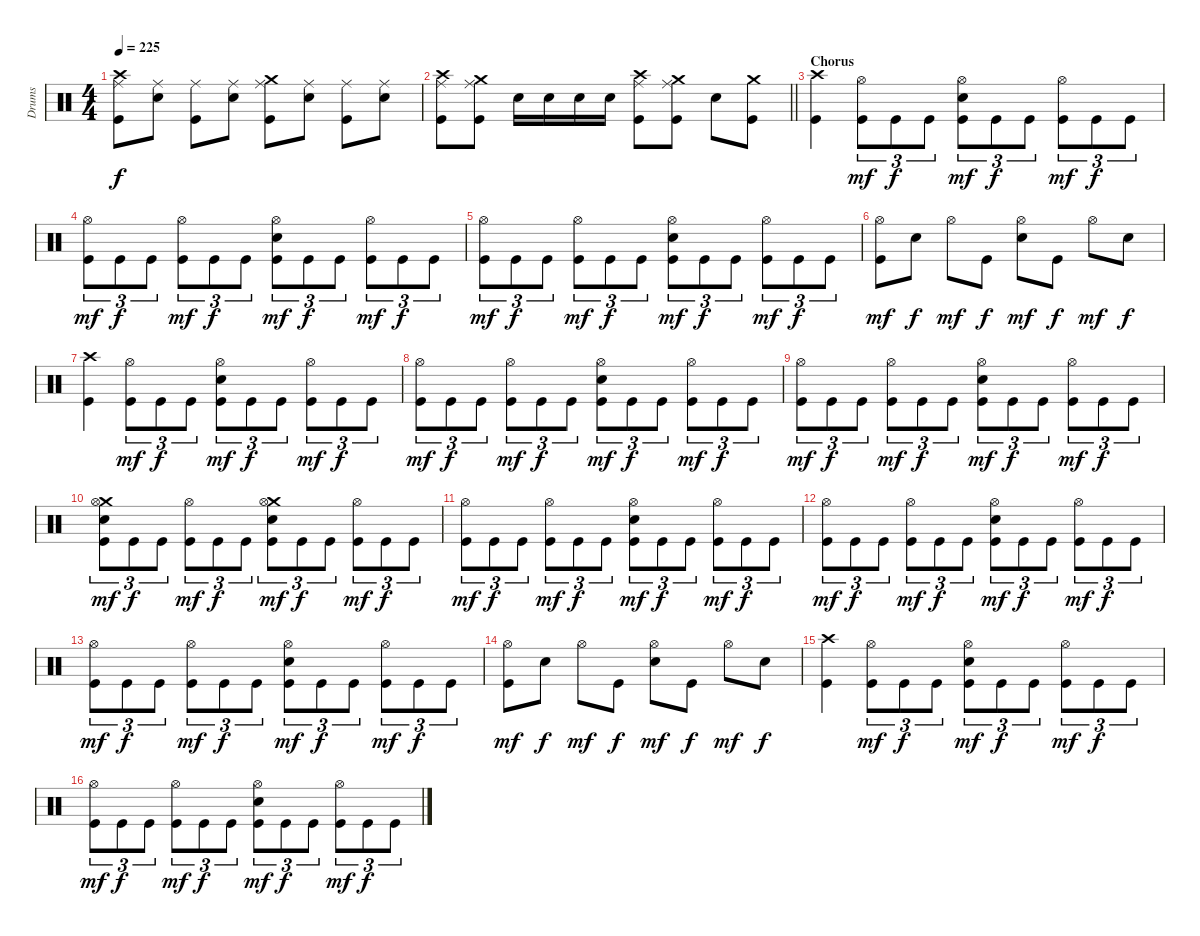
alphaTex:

\track ("Drums" "Drums") {instrument percussion}
\staff {score}
\articulation defaults
\ts (4 4)
\tempo 225
\clef neutral
\ks c
("Crash high (hit)" "Ride (middle)" "Kick (hit)").8{dy f} ("Ride (middle)" "Electric Snare (hit)").8 ("Ride (middle)" "Kick (hit)").8 ("Ride (middle)" "Electric Snare (hit)").8 ("Crash medium (hit)" "Ride (middle)" "Kick (hit)").8 ("Ride (middle)" "Electric Snare (hit)").8 ("Ride (middle)" "Kick (hit)").8 ("Ride (middle)" "Electric Snare (hit)").8 |
\barLineRight lightlight
("Crash high (hit)" "Ride (middle)" "Kick (hit)").8 ("Crash medium (hit)" "Ride (middle)" "Kick (hit)").8 "Electric Snare (hit)".16 "Electric Snare (hit)".16 "Electric Snare (hit)".16 "Electric Snare (hit)".16 ("Crash high (hit)" "Ride (middle)" "Kick (hit)").8 ("Crash medium (hit)" "Ride (middle)" "Kick (hit)").8 "Electric Snare (hit)".8 ("Crash medium (hit)" "Kick (hit)").8 |
\section ("" "Chorus")
("Crash high (hit)" "Kick (hit)").4 ("Hi-Hat (open)" "Kick (hit)").8{tu (3 2) dy mf} "Kick (hit)".8{tu (3 2) dy f} "Kick (hit)".8{tu (3 2)} ("Hi-Hat (open)" "Electric Snare (hit)" "Kick (hit)").8{tu (3 2) dy mf} "Kick (hit)".8{tu (3 2) dy f} "Kick (hit)".8{tu (3 2)} ("Hi-Hat (open)" "Kick (hit)").8{tu (3 2) dy mf} "Kick (hit)".8{tu (3 2) dy f} "Kick (hit)".8{tu (3 2)} |
("Hi-Hat (open)" "Kick (hit)").8{tu (3 2) dy mf} "Kick (hit)".8{tu (3 2) dy f} "Kick (hit)".8{tu (3 2)} ("Hi-Hat (open)" "Kick (hit)").8{tu (3 2) dy mf} "Kick (hit)".8{tu (3 2) dy f} "Kick (hit)".8{tu (3 2)} ("Hi-Hat (open)" "Electric Snare (hit)" "Kick (hit)").8{tu (3 2) dy mf} "Kick (hit)".8{tu (3 2) dy f} "Kick (hit)".8{tu (3 2)} ("Hi-Hat (open)" "Kick (hit)").8{tu (3 2) dy mf} "Kick (hit)".8{tu (3 2) dy f} "Kick (hit)".8{tu (3 2)} |
("Hi-Hat (open)" "Kick (hit)").8{tu (3 2) dy mf} "Kick (hit)".8{tu (3 2) dy f} "Kick (hit)".8{tu (3 2)} ("Hi-Hat (open)" "Kick (hit)").8{tu (3 2) dy mf} "Kick (hit)".8{tu (3 2) dy f} "Kick (hit)".8{tu (3 2)} ("Hi-Hat (open)" "Electric Snare (hit)" "Kick (hit)").8{tu (3 2) dy mf} "Kick (hit)".8{tu (3 2) dy f} "Kick (hit)".8{tu (3 2)} ("Hi-Hat (open)" "Kick (hit)").8{tu (3 2) dy mf} "Kick (hit)".8{tu (3 2) dy f} "Kick (hit)".8{tu (3 2)} |
("Hi-Hat (open)" "Kick (hit)").8{dy mf} "Electric Snare (hit)".8{dy f} "Hi-Hat (open)".8{dy mf} "Kick (hit)".8{dy f} ("Hi-Hat (open)" "Electric Snare (hit)").8{dy mf} "Kick (hit)".8{dy f} "Hi-Hat (open)".8{dy mf} "Electric Snare (hit)".8{dy f} |
("Crash high (hit)" "Kick (hit)").4 ("Hi-Hat (open)" "Kick (hit)").8{tu (3 2) dy mf} "Kick (hit)".8{tu (3 2) dy f} "Kick (hit)".8{tu (3 2)} ("Hi-Hat (open)" "Electric Snare (hit)" "Kick (hit)").8{tu (3 2) dy mf} "Kick (hit)".8{tu (3 2) dy f} "Kick (hit)".8{tu (3 2)} ("Hi-Hat (open)" "Kick (hit)").8{tu (3 2) dy mf} "Kick (hit)".8{tu (3 2) dy f} "Kick (hit)".8{tu (3 2)} |
("Hi-Hat (open)" "Kick (hit)").8{tu (3 2) dy mf} "Kick (hit)".8{tu (3 2) dy f} "Kick (hit)".8{tu (3 2)} ("Hi-Hat (open)" "Kick (hit)").8{tu (3 2) dy mf} "Kick (hit)".8{tu (3 2) dy f} "Kick (hit)".8{tu (3 2)} ("Hi-Hat (open)" "Electric Snare (hit)" "Kick (hit)").8{tu (3 2) dy mf} "Kick (hit)".8{tu (3 2) dy f} "Kick (hit)".8{tu (3 2)} ("Hi-Hat (open)" "Kick (hit)").8{tu (3 2) dy mf} "Kick (hit)".8{tu (3 2) dy f} "Kick (hit)".8{tu (3 2)} |
("Hi-Hat (open)" "Kick (hit)").8{tu (3 2) dy mf} "Kick (hit)".8{tu (3 2) dy f} "Kick (hit)".8{tu (3 2)} ("Hi-Hat (open)" "Kick (hit)").8{tu (3 2) dy mf} "Kick (hit)".8{tu (3 2) dy f} "Kick (hit)".8{tu (3 2)} ("Hi-Hat (open)" "Electric Snare (hit)" "Kick (hit)").8{tu (3 2) dy mf} "Kick (hit)".8{tu (3 2) dy f} "Kick (hit)".8{tu (3 2)} ("Hi-Hat (open)" "Kick (hit)").8{tu (3 2) dy mf} "Kick (hit)".8{tu (3 2) dy f} "Kick (hit)".8{tu (3 2)} |
("Crash medium (hit)" "Hi-Hat (open)" "Electric Snare (hit)" "Kick (hit)").8{tu (3 2) dy mf} "Kick (hit)".8{tu (3 2) dy f} "Kick (hit)".8{tu (3 2)} ("Hi-Hat (open)" "Kick (hit)").8{tu (3 2) dy mf} "Kick (hit)".8{tu (3 2) dy f} "Kick (hit)".8{tu (3 2)} ("Crash medium (hit)" "Hi-Hat (open)" "Electric Snare (hit)" "Kick (hit)").8{tu (3 2) dy mf} "Kick (hit)".8{tu (3 2) dy f} "Kick (hit)".8{tu (3 2)} ("Hi-Hat (open)" "Kick (hit)").8{tu (3 2) dy mf} "Kick (hit)".8{tu (3 2) dy f} "Kick (hit)".8{tu (3 2)} |
("Hi-Hat (open)" "Kick (hit)").8{tu (3 2) dy mf} "Kick (hit)".8{tu (3 2) dy f} "Kick (hit)".8{tu (3 2)} ("Hi-Hat (open)" "Kick (hit)").8{tu (3 2) dy mf} "Kick (hit)".8{tu (3 2) dy f} "Kick (hit)".8{tu (3 2)} ("Hi-Hat (open)" "Electric Snare (hit)" "Kick (hit)").8{tu (3 2) dy mf} "Kick (hit)".8{tu (3 2) dy f} "Kick (hit)".8{tu (3 2)} ("Hi-Hat (open)" "Kick (hit)").8{tu (3 2) dy mf} "Kick (hit)".8{tu (3 2) dy f} "Kick (hit)".8{tu (3 2)} |
("Hi-Hat (open)" "Kick (hit)").8{tu (3 2) dy mf} "Kick (hit)".8{tu (3 2) dy f} "Kick (hit)".8{tu (3 2)} ("Hi-Hat (open)" "Kick (hit)").8{tu (3 2) dy mf} "Kick (hit)".8{tu (3 2) dy f} "Kick (hit)".8{tu (3 2)} ("Hi-Hat (open)" "Electric Snare (hit)" "Kick (hit)").8{tu (3 2) dy mf} "Kick (hit)".8{tu (3 2) dy f} "Kick (hit)".8{tu (3 2)} ("Hi-Hat (open)" "Kick (hit)").8{tu (3 2) dy mf} "Kick (hit)".8{tu (3 2) dy f} "Kick (hit)".8{tu (3 2)} |
("Hi-Hat (open)" "Kick (hit)").8{tu (3 2) dy mf} "Kick (hit)".8{tu (3 2) dy f} "Kick (hit)".8{tu (3 2)} ("Hi-Hat (open)" "Kick (hit)").8{tu (3 2) dy mf} "Kick (hit)".8{tu (3 2) dy f} "Kick (hit)".8{tu (3 2)} ("Hi-Hat (open)" "Electric Snare (hit)" "Kick (hit)").8{tu (3 2) dy mf} "Kick (hit)".8{tu (3 2) dy f} "Kick (hit)".8{tu (3 2)} ("Hi-Hat (open)" "Kick (hit)").8{tu (3 2) dy mf} "Kick (hit)".8{tu (3 2) dy f} "Kick (hit)".8{tu (3 2)} |
("Hi-Hat (open)" "Kick (hit)").8{dy mf} "Electric Snare (hit)".8{dy f} "Hi-Hat (open)".8{dy mf} "Kick (hit)".8{dy f} ("Hi-Hat (open)" "Electric Snare (hit)").8{dy mf} "Kick (hit)".8{dy f} "Hi-Hat (open)".8{dy mf} "Electric Snare (hit)".8{dy f} |
("Crash high (hit)" "Kick (hit)").4 ("Hi-Hat (open)" "Kick (hit)").8{tu (3 2) dy mf} "Kick (hit)".8{tu (3 2) dy f} "Kick (hit)".8{tu (3 2)} ("Hi-Hat (open)" "Electric Snare (hit)" "Kick (hit)").8{tu (3 2) dy mf} "Kick (hit)".8{tu (3 2) dy f} "Kick (hit)".8{tu (3 2)} ("Hi-Hat (open)" "Kick (hit)").8{tu (3 2) dy mf} "Kick (hit)".8{tu (3 2) dy f} "Kick (hit)".8{tu (3 2)} |
("Hi-Hat (open)" "Kick (hit)").8{tu (3 2) dy mf} "Kick (hit)".8{tu (3 2) dy f} "Kick (hit)".8{tu (3 2)} ("Hi-Hat (open)" "Kick (hit)").8{tu (3 2) dy mf} "Kick (hit)".8{tu (3 2) dy f} "Kick (hit)".8{tu (3 2)} ("Hi-Hat (open)" "Electric Snare (hit)" "Kick (hit)").8{tu (3 2) dy mf} "Kick (hit)".8{tu (3 2) dy f} "Kick (hit)".8{tu (3 2)} ("Hi-Hat (open)" "Kick (hit)").8{tu (3 2) dy mf} "Kick (hit)".8{tu (3 2) dy f} "Kick (hit)".8{tu (3 2)}
